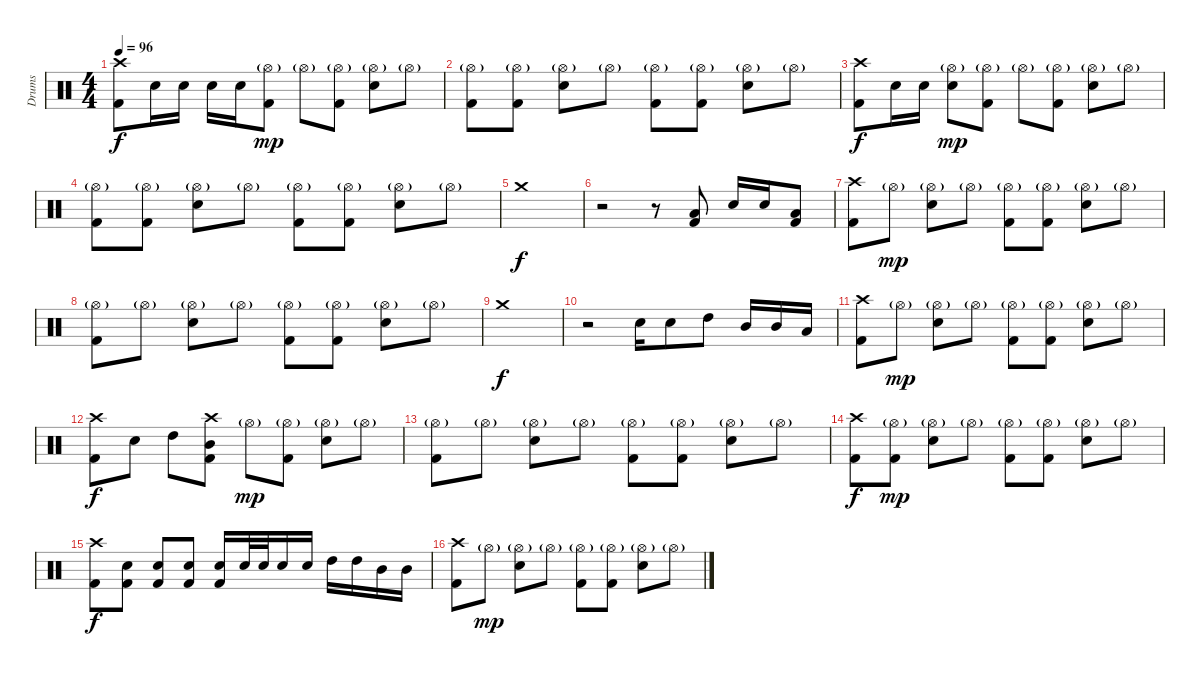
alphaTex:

\track ("Drums" "Drums") {instrument percussion}
\staff {score}
\articulation defaults
\ts (4 4)
\tempo 96
\clef neutral
\ks c
("Crash high (hit)" "Kick (hit) 2").8{dy f} "Electric Snare (hit)".16 "Electric Snare (hit)".16 "Electric Snare (hit)".16 "Electric Snare (hit)".16 ("Hi-Hat (open)"{g} "Kick (hit) 2").8{dy mp} "Hi-Hat (open)"{g}.8 ("Hi-Hat (open)"{g} "Kick (hit) 2").8 ("Hi-Hat (open)"{g} "Electric Snare (hit)").8 "Hi-Hat (open)"{g}.8 |
("Hi-Hat (open)"{g} "Kick (hit) 2").8 ("Hi-Hat (open)"{g} "Kick (hit) 2").8 ("Hi-Hat (open)"{g} "Electric Snare (hit)").8 "Hi-Hat (open)"{g}.8 ("Hi-Hat (open)"{g} "Kick (hit) 2").8 ("Hi-Hat (open)"{g} "Kick (hit) 2").8 ("Hi-Hat (open)"{g} "Electric Snare (hit)").8 "Hi-Hat (open)"{g}.8 |
("Crash high (hit)" "Kick (hit) 2").8{dy f} "Electric Snare (hit)".16 "Electric Snare (hit)".16 ("Hi-Hat (open)"{g} "Electric Snare (hit)").8{dy mp} ("Hi-Hat (open)"{g} "Kick (hit) 2").8 "Hi-Hat (open)"{g}.8 ("Hi-Hat (open)"{g} "Kick (hit) 2").8 ("Hi-Hat (open)"{g} "Electric Snare (hit)").8 "Hi-Hat (open)"{g}.8 |
("Hi-Hat (open)"{g} "Kick (hit) 2").8 ("Hi-Hat (open)"{g} "Kick (hit) 2").8 ("Hi-Hat (open)"{g} "Electric Snare (hit)").8 "Hi-Hat (open)"{g}.8 ("Hi-Hat (open)"{g} "Kick (hit) 2").8 ("Hi-Hat (open)"{g} "Kick (hit) 2").8 ("Hi-Hat (open)"{g} "Electric Snare (hit)").8 "Hi-Hat (open)"{g}.8 |
"Crash medium (hit)".1{dy f} |
r.2 r.8 ("Low Tom (hit)" "Kick (hit) 2").8 "Electric Snare (hit)".16 "Electric Snare (hit)".16 ("Low Tom (hit)" "Kick (hit) 2").8 |
("Crash high (hit)" "Kick (hit) 2").8 "Hi-Hat (open)"{g}.8{dy mp} ("Hi-Hat (open)"{g} "Electric Snare (hit)").8 "Hi-Hat (open)"{g}.8 ("Hi-Hat (open)"{g} "Kick (hit) 2").8 ("Hi-Hat (open)"{g} "Kick (hit) 2").8 ("Hi-Hat (open)"{g} "Electric Snare (hit)").8 "Hi-Hat (open)"{g}.8 |
("Hi-Hat (open)"{g} "Kick (hit) 2").8 "Hi-Hat (open)"{g}.8 ("Hi-Hat (open)"{g} "Electric Snare (hit)").8 "Hi-Hat (open)"{g}.8 ("Hi-Hat (open)"{g} "Kick (hit) 2").8 ("Hi-Hat (open)"{g} "Kick (hit) 2").8 ("Hi-Hat (open)"{g} "Electric Snare (hit)").8 "Hi-Hat (open)"{g}.8 |
"Crash medium (hit)".1{dy f} |
r.2 "Electric Snare (hit)".16 "Electric Snare (hit)".8 "High Tom (hit)".8 "Mid Tom (hit)".16 "Mid Tom (hit)".16 "Low Tom (hit)".16 |
("Crash high (hit)" "Kick (hit) 2").8 "Hi-Hat (open)"{g}.8{dy mp} ("Hi-Hat (open)"{g} "Electric Snare (hit)").8 "Hi-Hat (open)"{g}.8 ("Hi-Hat (open)"{g} "Kick (hit) 2").8 ("Hi-Hat (open)"{g} "Kick (hit) 2").8 ("Hi-Hat (open)"{g} "Electric Snare (hit)").8 "Hi-Hat (open)"{g}.8 |
("Crash high (hit)" "Kick (hit) 2").8{dy f} "Electric Snare (hit)".8 "High Tom (hit)".8 ("Crash high (hit)" "Mid Tom (hit)" "Kick (hit) 2").8 "Hi-Hat (open)"{g}.8{dy mp} ("Hi-Hat (open)"{g} "Kick (hit) 2").8 ("Hi-Hat (open)"{g} "Electric Snare (hit)").8 "Hi-Hat (open)"{g}.8 |
("Hi-Hat (open)"{g} "Kick (hit) 2").8 "Hi-Hat (open)"{g}.8 ("Hi-Hat (open)"{g} "Electric Snare (hit)").8 "Hi-Hat (open)"{g}.8 ("Hi-Hat (open)"{g} "Kick (hit) 2").8 ("Hi-Hat (open)"{g} "Kick (hit) 2").8 ("Hi-Hat (open)"{g} "Electric Snare (hit)").8 "Hi-Hat (open)"{g}.8 |
("Crash high (hit)" "Kick (hit) 2").8{dy f} ("Hi-Hat (open)"{g} "Kick (hit) 2").8{dy mp} ("Hi-Hat (open)"{g} "Electric Snare (hit)").8 "Hi-Hat (open)"{g}.8 ("Hi-Hat (open)"{g} "Kick (hit) 2").8 ("Hi-Hat (open)"{g} "Kick (hit) 2").8 ("Hi-Hat (open)"{g} "Electric Snare (hit)").8 "Hi-Hat (open)"{g}.8 |
("Crash high (hit)" "Kick (hit) 2").8{dy f} ("Electric Snare (hit)" "Kick (hit) 2").8 ("Electric Snare (hit)" "Kick (hit) 2").8 ("Electric Snare (hit)" "Kick (hit) 2").8 ("Electric Snare (hit)" "Kick (hit) 2").16 "Electric Snare (hit)".32 "Electric Snare (hit)".32 "Electric Snare (hit)".16 "Electric Snare (hit)".16 "High Tom (hit)".16 "High Tom (hit)".16 "Mid Tom (hit)".16 "Mid Tom (hit)".16 |
("Crash high (hit)" "Kick (hit) 2").8 "Hi-Hat (open)"{g}.8{dy mp} ("Hi-Hat (open)"{g} "Electric Snare (hit)").8 "Hi-Hat (open)"{g}.8 ("Hi-Hat (open)"{g} "Kick (hit) 2").8 ("Hi-Hat (open)"{g} "Kick (hit) 2").8 ("Hi-Hat (open)"{g} "Electric Snare (hit)").8 "Hi-Hat (open)"{g}.8
